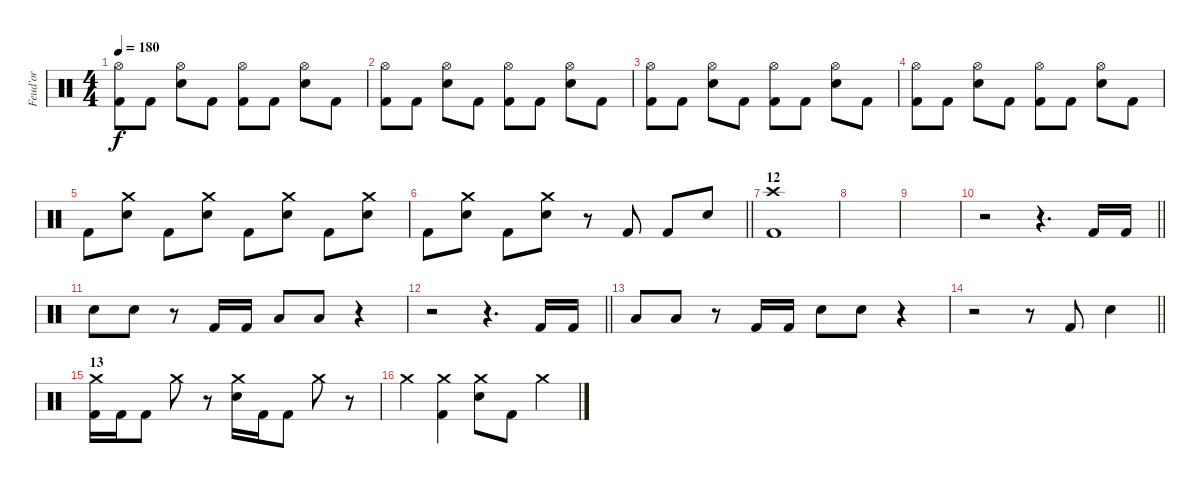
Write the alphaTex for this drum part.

\track ("Feud'or" "Feud'or") {instrument percussion}
\staff {score}
\articulation defaults
\ts (4 4)
\tempo 180
\clef neutral
\ks c
("Hi-Hat (open)" "Kick (hit) 2").8{dy f} "Kick (hit) 2".8 ("Hi-Hat (open)" "Snare (hit) 2").8 "Kick (hit) 2".8 ("Hi-Hat (open)" "Kick (hit) 2").8 "Kick (hit) 2".8 ("Hi-Hat (open)" "Snare (hit) 2").8 "Kick (hit) 2".8 |
("Hi-Hat (open)" "Kick (hit) 2").8 "Kick (hit) 2".8 ("Hi-Hat (open)" "Snare (hit) 2").8 "Kick (hit) 2".8 ("Hi-Hat (open)" "Kick (hit) 2").8 "Kick (hit) 2".8 ("Hi-Hat (open)" "Snare (hit) 2").8 "Kick (hit) 2".8 |
("Hi-Hat (open)" "Kick (hit) 2").8 "Kick (hit) 2".8 ("Hi-Hat (open)" "Snare (hit) 2").8 "Kick (hit) 2".8 ("Hi-Hat (open)" "Kick (hit) 2").8 "Kick (hit) 2".8 ("Hi-Hat (open)" "Snare (hit) 2").8 "Kick (hit) 2".8 |
("Hi-Hat (open)" "Kick (hit) 2").8 "Kick (hit) 2".8 ("Hi-Hat (open)" "Snare (hit) 2").8 "Kick (hit) 2".8 ("Hi-Hat (open)" "Kick (hit) 2").8 "Kick (hit) 2".8 ("Hi-Hat (open)" "Snare (hit) 2").8 "Kick (hit) 2".8 |
"Kick (hit) 2".8 ("Crash medium (hit)" "Snare (hit) 2").8 "Kick (hit) 2".8 ("Crash medium (hit)" "Snare (hit) 2").8 "Kick (hit) 2".8 ("Crash medium (hit)" "Snare (hit) 2").8 "Kick (hit) 2".8 ("Crash medium (hit)" "Snare (hit) 2").8 |
\barLineRight lightlight "Kick (hit) 2".8
("Crash medium (hit)" "Snare (hit) 2").8 "Kick (hit) 2".8 ("Crash medium (hit)" "Snare (hit) 2").8 r.8 "Kick (hit) 2".8 "Kick (hit) 2".8 "Snare (hit) 2".8 |
\section ("" "12")
("Crash high (hit)" "Kick (hit) 2").1 |
|
|
\barLineRight lightlight
r.2 r.4{d} "Kick (hit) 2".16 "Kick (hit) 2".16 |
"Snare (hit) 2".8 "Snare (hit) 2".8 r.8 "Kick (hit) 2".16 "Kick (hit) 2".16 "Low Tom (hit)".8 "Low Tom (hit)".8 r.4 |
\barLineRight lightlight
r.2 r.4{d} "Kick (hit) 2".16 "Kick (hit) 2".16 |
"Low Tom (hit)".8 "Low Tom (hit)".8 r.8 "Kick (hit) 2".16 "Kick (hit) 2".16 "Snare (hit) 2".8 "Snare (hit) 2".8 r.4 |
\barLineRight lightlight
r.2 r.8 "Kick (hit) 2".8 "Snare (hit) 2".4 |
\section ("" "13")
("Crash medium (hit)" "Kick (hit) 2").16 "Kick (hit) 2".16 "Kick (hit) 2".8 "Crash medium (hit)".8 r.8 ("Crash medium (hit)" "Snare (hit) 2").16 "Kick (hit) 2".16 "Kick (hit) 2".8 "Crash medium (hit)".8 r.8 |
"Crash medium (hit)".4 ("Crash medium (hit)" "Kick (hit) 2").4 ("Crash medium (hit)" "Snare (hit) 2").8 "Kick (hit) 2".8 "Crash medium (hit)".4
